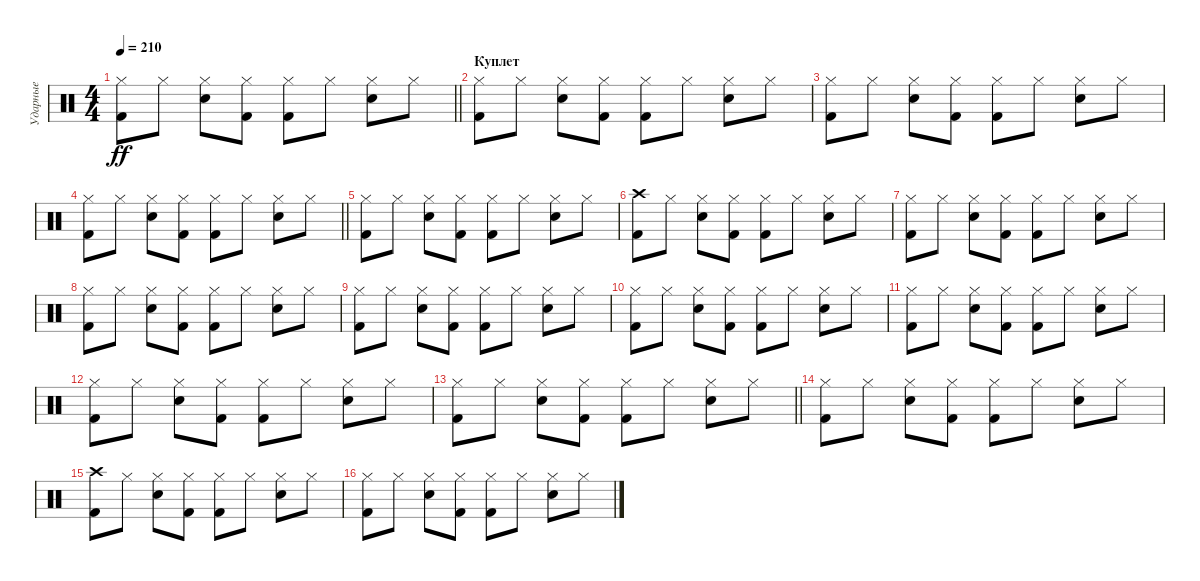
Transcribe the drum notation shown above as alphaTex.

\track ("Ударные" "Ударные") {instrument percussion}
\staff {score}
\articulation defaults
\ts (4 4)
\tempo 210
\clef neutral
\barLineRight lightlight
\ks c
("Hi-Hat (closed)" "Kick (hit) 2").8{dy ff} "Hi-Hat (closed)".8 ("Hi-Hat (closed)" "Snare (hit) 2").8 ("Hi-Hat (closed)" "Kick (hit) 2").8 ("Hi-Hat (closed)" "Kick (hit) 2").8 "Hi-Hat (closed)".8 ("Hi-Hat (closed)" "Snare (hit) 2").8 "Hi-Hat (closed)".8 |
\section ("" "Куплет")
("Hi-Hat (closed)" "Kick (hit) 2").8 "Hi-Hat (closed)".8 ("Hi-Hat (closed)" "Snare (hit) 2").8 ("Hi-Hat (closed)" "Kick (hit) 2").8 ("Hi-Hat (closed)" "Kick (hit) 2").8 "Hi-Hat (closed)".8 ("Hi-Hat (closed)" "Snare (hit) 2").8 "Hi-Hat (closed)".8 |
("Hi-Hat (closed)" "Kick (hit) 2").8 "Hi-Hat (closed)".8 ("Hi-Hat (closed)" "Snare (hit) 2").8 ("Hi-Hat (closed)" "Kick (hit) 2").8 ("Hi-Hat (closed)" "Kick (hit) 2").8 "Hi-Hat (closed)".8 ("Hi-Hat (closed)" "Snare (hit) 2").8 "Hi-Hat (closed)".8 |
\barLineRight lightlight
("Hi-Hat (closed)" "Kick (hit) 2").8 "Hi-Hat (closed)".8 ("Hi-Hat (closed)" "Snare (hit) 2").8 ("Hi-Hat (closed)" "Kick (hit) 2").8 ("Hi-Hat (closed)" "Kick (hit) 2").8 "Hi-Hat (closed)".8 ("Hi-Hat (closed)" "Snare (hit) 2").8 "Hi-Hat (closed)".8 |
("Hi-Hat (closed)" "Kick (hit) 2").8 "Hi-Hat (closed)".8 ("Hi-Hat (closed)" "Snare (hit) 2").8 ("Hi-Hat (closed)" "Kick (hit) 2").8 ("Hi-Hat (closed)" "Kick (hit) 2").8 "Hi-Hat (closed)".8 ("Hi-Hat (closed)" "Snare (hit) 2").8 "Hi-Hat (closed)".8 |
("Crash high (hit)" "Kick (hit) 2").8 "Hi-Hat (closed)".8 ("Hi-Hat (closed)" "Snare (hit) 2").8 ("Hi-Hat (closed)" "Kick (hit) 2").8 ("Hi-Hat (closed)" "Kick (hit) 2").8 "Hi-Hat (closed)".8 ("Hi-Hat (closed)" "Snare (hit) 2").8 "Hi-Hat (closed)".8 |
("Hi-Hat (closed)" "Kick (hit) 2").8 "Hi-Hat (closed)".8 ("Hi-Hat (closed)" "Snare (hit) 2").8 ("Hi-Hat (closed)" "Kick (hit) 2").8 ("Hi-Hat (closed)" "Kick (hit) 2").8 "Hi-Hat (closed)".8 ("Hi-Hat (closed)" "Snare (hit) 2").8 "Hi-Hat (closed)".8 |
("Hi-Hat (closed)" "Kick (hit) 2").8 "Hi-Hat (closed)".8 ("Hi-Hat (closed)" "Snare (hit) 2").8 ("Hi-Hat (closed)" "Kick (hit) 2").8 ("Hi-Hat (closed)" "Kick (hit) 2").8 "Hi-Hat (closed)".8 ("Hi-Hat (closed)" "Snare (hit) 2").8 "Hi-Hat (closed)".8 |
("Hi-Hat (closed)" "Kick (hit) 2").8 "Hi-Hat (closed)".8 ("Hi-Hat (closed)" "Snare (hit) 2").8 ("Hi-Hat (closed)" "Kick (hit) 2").8 ("Hi-Hat (closed)" "Kick (hit) 2").8 "Hi-Hat (closed)".8 ("Hi-Hat (closed)" "Snare (hit) 2").8 "Hi-Hat (closed)".8 |
("Hi-Hat (closed)" "Kick (hit) 2").8 "Hi-Hat (closed)".8 ("Hi-Hat (closed)" "Snare (hit) 2").8 ("Hi-Hat (closed)" "Kick (hit) 2").8 ("Hi-Hat (closed)" "Kick (hit) 2").8 "Hi-Hat (closed)".8 ("Hi-Hat (closed)" "Snare (hit) 2").8 "Hi-Hat (closed)".8 |
("Hi-Hat (closed)" "Kick (hit) 2").8 "Hi-Hat (closed)".8 ("Hi-Hat (closed)" "Snare (hit) 2").8 ("Hi-Hat (closed)" "Kick (hit) 2").8 ("Hi-Hat (closed)" "Kick (hit) 2").8 "Hi-Hat (closed)".8 ("Hi-Hat (closed)" "Snare (hit) 2").8 "Hi-Hat (closed)".8 |
("Hi-Hat (closed)" "Kick (hit) 2").8 "Hi-Hat (closed)".8 ("Hi-Hat (closed)" "Snare (hit) 2").8 ("Hi-Hat (closed)" "Kick (hit) 2").8 ("Hi-Hat (closed)" "Kick (hit) 2").8 "Hi-Hat (closed)".8 ("Hi-Hat (closed)" "Snare (hit) 2").8 "Hi-Hat (closed)".8 |
\barLineRight lightlight
("Hi-Hat (closed)" "Kick (hit) 2").8 "Hi-Hat (closed)".8 ("Hi-Hat (closed)" "Snare (hit) 2").8 ("Hi-Hat (closed)" "Kick (hit) 2").8 ("Hi-Hat (closed)" "Kick (hit) 2").8 "Hi-Hat (closed)".8 ("Hi-Hat (closed)" "Snare (hit) 2").8 "Hi-Hat (closed)".8 |
("Hi-Hat (closed)" "Kick (hit) 2").8 "Hi-Hat (closed)".8 ("Hi-Hat (closed)" "Snare (hit) 2").8 ("Hi-Hat (closed)" "Kick (hit) 2").8 ("Hi-Hat (closed)" "Kick (hit) 2").8 "Hi-Hat (closed)".8 ("Hi-Hat (closed)" "Snare (hit) 2").8 "Hi-Hat (closed)".8 |
("Crash high (hit)" "Kick (hit) 2").8 "Hi-Hat (closed)".8 ("Hi-Hat (closed)" "Snare (hit) 2").8 ("Hi-Hat (closed)" "Kick (hit) 2").8 ("Hi-Hat (closed)" "Kick (hit) 2").8 "Hi-Hat (closed)".8 ("Hi-Hat (closed)" "Snare (hit) 2").8 "Hi-Hat (closed)".8 |
("Hi-Hat (closed)" "Kick (hit) 2").8 "Hi-Hat (closed)".8 ("Hi-Hat (closed)" "Snare (hit) 2").8 ("Hi-Hat (closed)" "Kick (hit) 2").8 ("Hi-Hat (closed)" "Kick (hit) 2").8 "Hi-Hat (closed)".8 ("Hi-Hat (closed)" "Snare (hit) 2").8 "Hi-Hat (closed)".8
